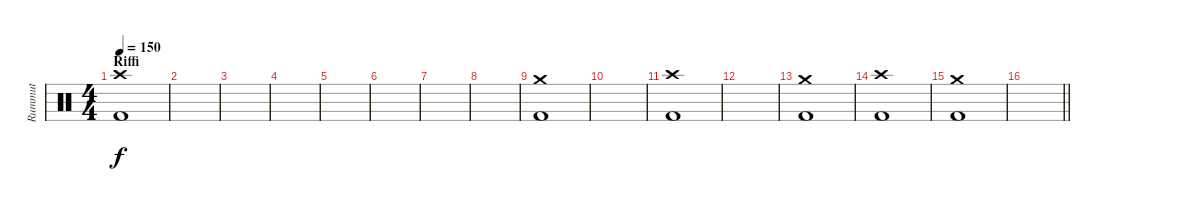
\track ("Rummut" "Rummut") {instrument percussion}
\staff {score}
\articulation defaults
\ts (4 4)
\section ("" "Riffi")
\tempo 150
\clef neutral
\ks c
("Crash high (hit)" "Kick (hit) 2").1{dy f} |
|
|
|
|
|
|
|
("Crash medium (hit)" "Kick (hit) 2").1 |
|
("Crash high (hit)" "Kick (hit) 2").1 |
|
("Crash medium (hit)" "Kick (hit) 2").1 |
("Crash high (hit)" "Kick (hit) 2").1 |
("Crash medium (hit)" "Kick (hit) 2").1 |
\barLineRight lightlight
